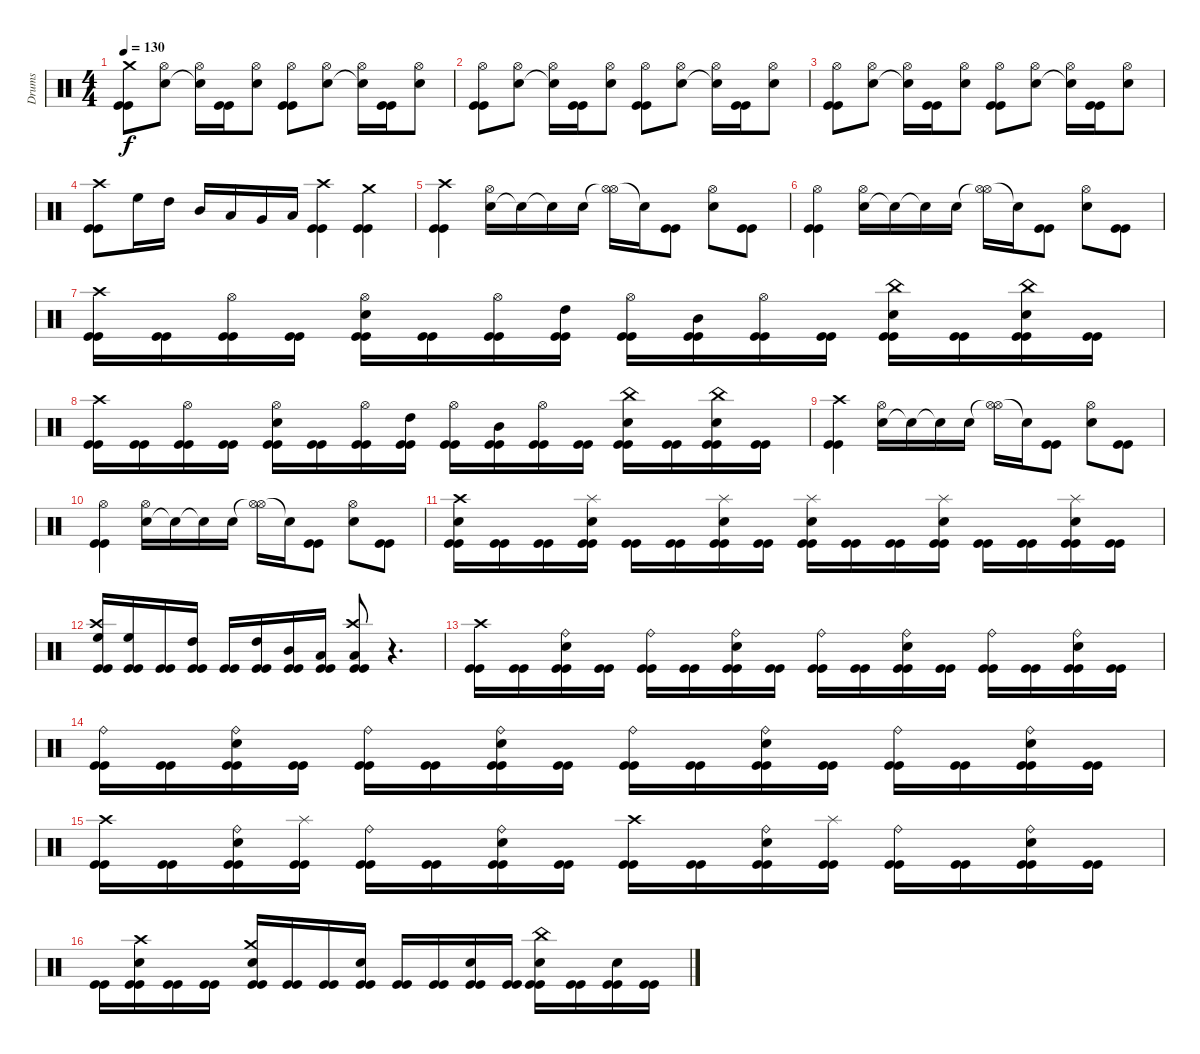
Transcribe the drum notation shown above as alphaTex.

\track ("Drums" "Drums") {instrument percussion}
\staff {score}
\articulation defaults
\ts (4 4)
\tempo 130
\clef neutral
\ks c
("Kick (hit)" "Kick (hit)" "Crash medium (hit)").8{dy f} ("Snare (hit) 2" "Hi-Hat (open)").8 ("Snare (hit)"{t} "Hi-Hat (open)").16 ("Kick (hit)" "Kick (hit)").16 ("Snare (hit) 2" "Hi-Hat (open)").8 ("Kick (hit)" "Kick (hit)" "Hi-Hat (open)").8 ("Snare (hit) 2" "Hi-Hat (open)").8 ("Snare (hit)"{t} "Hi-Hat (open)").16 ("Kick (hit)" "Kick (hit)").16 ("Snare (hit) 2" "Hi-Hat (open)").8 |
("Kick (hit)" "Kick (hit)" "Hi-Hat (open)").8 ("Snare (hit) 2" "Hi-Hat (open)").8 ("Snare (hit)"{t} "Hi-Hat (open)").16 ("Kick (hit)" "Kick (hit)").16 ("Snare (hit) 2" "Hi-Hat (open)").8 ("Kick (hit)" "Kick (hit)" "Hi-Hat (open)").8 ("Snare (hit) 2" "Hi-Hat (open)").8 ("Snare (hit)"{t} "Hi-Hat (open)").16 ("Kick (hit)" "Kick (hit)").16 ("Snare (hit) 2" "Hi-Hat (open)").8 |
("Kick (hit)" "Kick (hit)" "Hi-Hat (open)").8 ("Snare (hit) 2" "Hi-Hat (open)").8 ("Snare (hit)"{t} "Hi-Hat (open)").16 ("Kick (hit)" "Kick (hit)").16 ("Snare (hit) 2" "Hi-Hat (open)").8 ("Kick (hit)" "Kick (hit)" "Hi-Hat (open)").8 ("Snare (hit) 2" "Hi-Hat (open)").8 ("Snare (hit)"{t} "Hi-Hat (open)").16 ("Kick (hit)" "Kick (hit)").16 ("Snare (hit) 2" "Hi-Hat (open)").8 |
("Kick (hit)" "Kick (hit)" "Crash high (hit)").8 "High Floor Tom (hit)".16 "High Tom (hit)".16 "Mid Tom (hit)".16 "Low Tom (hit)".16 "Very Low Tom (hit)".16 "Low Floor Tom (hit)".16 ("Kick (hit)" "Kick (hit)" "Crash high (hit)").4 ("Kick (hit)" "Kick (hit)" "Crash medium (hit)").4 |
("Kick (hit)" "Kick (hit)" "Crash high (hit)").4 ("Snare (hit) 2" "Hi-Hat (open)").16 "Snare (hit)"{t}.16 "Snare (hit)"{t}.16 "Snare (hit) 2".16 ("Hi-Hat (open)"{t} "Hi-Hat (open)").16 "Snare (hit)"{t}.16 ("Kick (hit)" "Kick (hit)").8 ("Snare (hit) 2" "Hi-Hat (open)").8 ("Kick (hit)" "Kick (hit)").8 |
("Kick (hit)" "Kick (hit)" "Hi-Hat (open)").4 ("Snare (hit) 2" "Hi-Hat (open)").16 "Snare (hit)"{t}.16 "Snare (hit)"{t}.16 "Snare (hit) 2".16 ("Hi-Hat (open)"{t} "Hi-Hat (open)").16 "Snare (hit)"{t}.16 ("Kick (hit)" "Kick (hit)").8 ("Snare (hit) 2" "Hi-Hat (open)").8 ("Kick (hit)" "Kick (hit)").8 |
("Kick (hit)" "Kick (hit)" "Crash high (hit)").16 ("Kick (hit)" "Kick (hit)").16 ("Kick (hit)" "Kick (hit)" "Hi-Hat (open)").16 ("Kick (hit)" "Kick (hit)").16 ("Kick (hit)" "Kick (hit)" "Snare (hit) 2" "Hi-Hat (open)").16 ("Kick (hit)" "Kick (hit)").16 ("Kick (hit)" "Kick (hit)" "Hi-Hat (open)").16 ("Kick (hit)" "Kick (hit)" "High Tom (hit)").16 ("Kick (hit)" "Kick (hit)" "Hi-Hat (open)").16 ("Kick (hit)" "Kick (hit)" "Mid Tom (hit)").16 ("Kick (hit)" "Kick (hit)" "Hi-Hat (open)").16 ("Kick (hit)" "Kick (hit)").16 ("Kick (hit)" "Kick (hit)" "Snare (hit) 2" "China (hit)").16 ("Kick (hit)" "Kick (hit)").16 ("Kick (hit)" "Kick (hit)" "Snare (hit) 2" "China (hit)").16 ("Kick (hit)" "Kick (hit)").16 |
("Kick (hit)" "Kick (hit)" "Crash high (hit)").16 ("Kick (hit)" "Kick (hit)").16 ("Kick (hit)" "Kick (hit)" "Hi-Hat (open)").16 ("Kick (hit)" "Kick (hit)").16 ("Kick (hit)" "Kick (hit)" "Snare (hit) 2" "Hi-Hat (open)").16 ("Kick (hit)" "Kick (hit)").16 ("Kick (hit)" "Kick (hit)" "Hi-Hat (open)").16 ("Kick (hit)" "Kick (hit)" "High Tom (hit)").16 ("Kick (hit)" "Kick (hit)" "Hi-Hat (open)").16 ("Kick (hit)" "Kick (hit)" "Mid Tom (hit)").16 ("Kick (hit)" "Kick (hit)" "Hi-Hat (open)").16 ("Kick (hit)" "Kick (hit)").16 ("Kick (hit)" "Kick (hit)" "Snare (hit) 2" "China (hit)").16 ("Kick (hit)" "Kick (hit)").16 ("Kick (hit)" "Kick (hit)" "Snare (hit) 2" "China (hit)").16 ("Kick (hit)" "Kick (hit)").16 |
("Kick (hit)" "Kick (hit)" "Crash high (hit)").4 ("Snare (hit) 2" "Hi-Hat (open)").16 "Snare (hit)"{t}.16 "Snare (hit)"{t}.16 "Snare (hit) 2".16 ("Hi-Hat (open)"{t} "Hi-Hat (open)").16 "Snare (hit)"{t}.16 ("Kick (hit)" "Kick (hit)").8 ("Snare (hit) 2" "Hi-Hat (open)").8 ("Kick (hit)" "Kick (hit)").8 |
("Kick (hit)" "Kick (hit)" "Hi-Hat (open)").4 ("Snare (hit) 2" "Hi-Hat (open)").16 "Snare (hit)"{t}.16 "Snare (hit)"{t}.16 "Snare (hit) 2".16 ("Hi-Hat (open)"{t} "Hi-Hat (open)").16 "Snare (hit)"{t}.16 ("Kick (hit)" "Kick (hit)").8 ("Snare (hit) 2" "Hi-Hat (open)").8 ("Kick (hit)" "Kick (hit)").8 |
("Kick (hit)" "Kick (hit)" "Snare (hit) 2" "Crash high (hit)").16 ("Kick (hit)" "Kick (hit)").16 ("Kick (hit)" "Kick (hit)").16 ("Kick (hit)" "Kick (hit)" "Snare (hit) 2" "Splash (hit)").16 ("Kick (hit)" "Kick (hit)").16 ("Kick (hit)" "Kick (hit)").16 ("Kick (hit)" "Kick (hit)" "Snare (hit) 2" "Splash (hit)").16 ("Kick (hit)" "Kick (hit)").16 ("Kick (hit)" "Kick (hit)" "Snare (hit) 2" "Splash (hit)").16 ("Kick (hit)" "Kick (hit)").16 ("Kick (hit)" "Kick (hit)").16 ("Kick (hit)" "Kick (hit)" "Snare (hit) 2" "Splash (hit)").16 ("Kick (hit)" "Kick (hit)").16 ("Kick (hit)" "Kick (hit)").16 ("Kick (hit)" "Kick (hit)" "Snare (hit) 2" "Splash (hit)").16 ("Kick (hit)" "Kick (hit)").16 |
("Kick (hit)" "Kick (hit)" "High Floor Tom (hit)" "Crash high (hit)").16 ("Kick (hit)" "Kick (hit)" "High Floor Tom (hit)").16 ("Kick (hit)" "Kick (hit)").16 ("Kick (hit)" "Kick (hit)" "High Tom (hit)").16 ("Kick (hit)" "Kick (hit)").16 ("Kick (hit)" "Kick (hit)" "High Tom (hit)").16 ("Kick (hit)" "Kick (hit)" "Mid Tom (hit)").16 ("Kick (hit)" "Kick (hit)" "Low Tom (hit)").16 ("Kick (hit)" "Kick (hit)" "Low Floor Tom (hit)" "Crash high (hit)").8 r.4{d} |
("Kick (hit)" "Kick (hit)" "Crash high (hit)").16 ("Kick (hit)" "Kick (hit)").16 ("Kick (hit)" "Kick (hit)" "Snare (hit) 2" "Ride (bell)").16 ("Kick (hit)" "Kick (hit)").16 ("Kick (hit)" "Kick (hit)" "Ride (bell)").16 ("Kick (hit)" "Kick (hit)").16 ("Kick (hit)" "Kick (hit)" "Snare (hit) 2" "Ride (bell)").16 ("Kick (hit)" "Kick (hit)").16 ("Kick (hit)" "Kick (hit)" "Ride (bell)").16 ("Kick (hit)" "Kick (hit)").16 ("Kick (hit)" "Kick (hit)" "Snare (hit) 2" "Ride (bell)").16 ("Kick (hit)" "Kick (hit)").16 ("Kick (hit)" "Kick (hit)" "Ride (bell)").16 ("Kick (hit)" "Kick (hit)").16 ("Kick (hit)" "Kick (hit)" "Snare (hit) 2" "Ride (bell)").16 ("Kick (hit)" "Kick (hit)").16 |
("Kick (hit)" "Kick (hit)" "Ride (bell)").16 ("Kick (hit)" "Kick (hit)").16 ("Kick (hit)" "Kick (hit)" "Snare (hit) 2" "Ride (bell)").16 ("Kick (hit)" "Kick (hit)").16 ("Kick (hit)" "Kick (hit)" "Ride (bell)").16 ("Kick (hit)" "Kick (hit)").16 ("Kick (hit)" "Kick (hit)" "Snare (hit) 2" "Ride (bell)").16 ("Kick (hit)" "Kick (hit)").16 ("Kick (hit)" "Kick (hit)" "Ride (bell)").16 ("Kick (hit)" "Kick (hit)").16 ("Kick (hit)" "Kick (hit)" "Snare (hit) 2" "Ride (bell)").16 ("Kick (hit)" "Kick (hit)").16 ("Kick (hit)" "Kick (hit)" "Ride (bell)").16 ("Kick (hit)" "Kick (hit)").16 ("Kick (hit)" "Kick (hit)" "Snare (hit) 2" "Ride (bell)").16 ("Kick (hit)" "Kick (hit)").16 |
("Kick (hit)" "Kick (hit)" "Crash high (hit)").16 ("Kick (hit)" "Kick (hit)").16 ("Kick (hit)" "Kick (hit)" "Snare (hit) 2" "Ride (bell)").16 ("Kick (hit)" "Kick (hit)" "Splash (hit)").16 ("Kick (hit)" "Kick (hit)" "Ride (bell)").16 ("Kick (hit)" "Kick (hit)").16 ("Kick (hit)" "Kick (hit)" "Snare (hit) 2" "Ride (bell)").16 ("Kick (hit)" "Kick (hit)").16 ("Kick (hit)" "Kick (hit)" "Crash high (hit)").16 ("Kick (hit)" "Kick (hit)").16 ("Kick (hit)" "Kick (hit)" "Snare (hit) 2" "Ride (bell)").16 ("Kick (hit)" "Kick (hit)" "Splash (hit)").16 ("Kick (hit)" "Kick (hit)" "Ride (bell)").16 ("Kick (hit)" "Kick (hit)").16 ("Kick (hit)" "Kick (hit)" "Snare (hit) 2" "Ride (bell)").16 ("Kick (hit)" "Kick (hit)").16 |
("Kick (hit)" "Kick (hit)").16 ("Kick (hit)" "Kick (hit)" "Snare (hit) 2" "Crash high (hit)").16 ("Kick (hit)" "Kick (hit)").16 ("Kick (hit)" "Kick (hit)").16 ("Kick (hit)" "Kick (hit)" "Snare (hit) 2" "Crash medium (hit)").16 ("Kick (hit)" "Kick (hit)").16 ("Kick (hit)" "Kick (hit)").16 ("Kick (hit)" "Kick (hit)" "Snare (hit) 2").16 ("Kick (hit)" "Kick (hit)").16 ("Kick (hit)" "Kick (hit)").16 ("Kick (hit)" "Kick (hit)" "Snare (hit) 2").16 ("Kick (hit)" "Kick (hit)").16 ("Kick (hit)" "Kick (hit)" "Snare (hit) 2" "China (hit)").16 ("Kick (hit)" "Kick (hit)").16 ("Kick (hit)" "Kick (hit)" "Snare (hit) 2").16 ("Kick (hit)" "Kick (hit)").16
